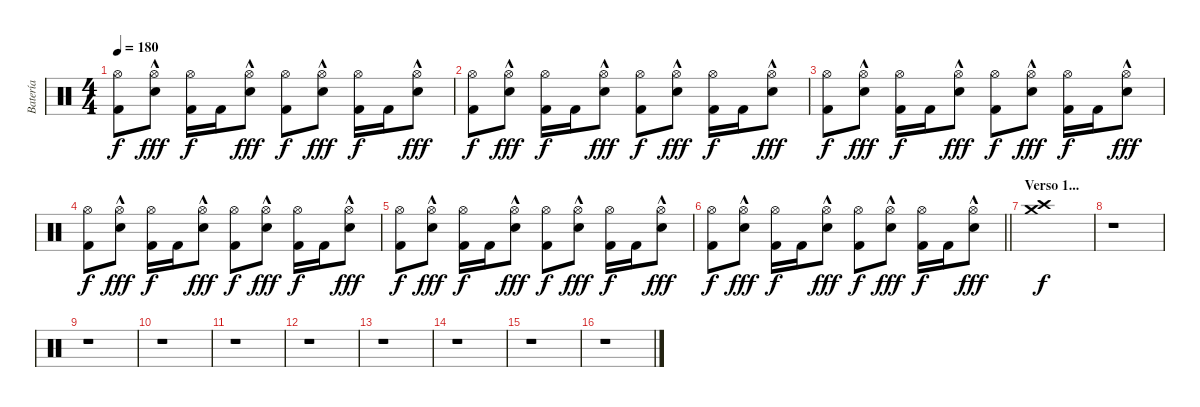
\track ("Batería" "Batería") {instrument percussion}
\staff {score}
\articulation defaults
\ts (4 4)
\tempo 180
\clef neutral
\ks c
("Hi-Hat (open)" "Kick (hit) 2").8{dy f} ("Snare (hit) 2"{hac} "Hi-Hat (open)").8{dy fff} ("Hi-Hat (open)" "Kick (hit) 2").16{dy f} "Kick (hit) 2".16 ("Snare (hit) 2"{hac} "Hi-Hat (open)").8{dy fff} ("Hi-Hat (open)" "Kick (hit) 2").8{dy f} ("Snare (hit) 2"{hac} "Hi-Hat (open)").8{dy fff} ("Hi-Hat (open)" "Kick (hit) 2").16{dy f} "Kick (hit) 2".16 ("Snare (hit) 2"{hac} "Hi-Hat (open)").8{dy fff} |
("Hi-Hat (open)" "Kick (hit) 2").8{dy f} ("Snare (hit) 2"{hac} "Hi-Hat (open)").8{dy fff} ("Hi-Hat (open)" "Kick (hit) 2").16{dy f} "Kick (hit) 2".16 ("Snare (hit) 2"{hac} "Hi-Hat (open)").8{dy fff} ("Hi-Hat (open)" "Kick (hit) 2").8{dy f} ("Snare (hit) 2"{hac} "Hi-Hat (open)").8{dy fff} ("Hi-Hat (open)" "Kick (hit) 2").16{dy f} "Kick (hit) 2".16 ("Snare (hit) 2"{hac} "Hi-Hat (open)").8{dy fff} |
("Hi-Hat (open)" "Kick (hit) 2").8{dy f} ("Snare (hit) 2"{hac} "Hi-Hat (open)").8{dy fff} ("Hi-Hat (open)" "Kick (hit) 2").16{dy f} "Kick (hit) 2".16 ("Snare (hit) 2"{hac} "Hi-Hat (open)").8{dy fff} ("Hi-Hat (open)" "Kick (hit) 2").8{dy f} ("Snare (hit) 2"{hac} "Hi-Hat (open)").8{dy fff} ("Hi-Hat (open)" "Kick (hit) 2").16{dy f} "Kick (hit) 2".16 ("Snare (hit) 2"{hac} "Hi-Hat (open)").8{dy fff} |
("Hi-Hat (open)" "Kick (hit) 2").8{dy f} ("Snare (hit) 2"{hac} "Hi-Hat (open)").8{dy fff} ("Hi-Hat (open)" "Kick (hit) 2").16{dy f} "Kick (hit) 2".16 ("Snare (hit) 2"{hac} "Hi-Hat (open)").8{dy fff} ("Hi-Hat (open)" "Kick (hit) 2").8{dy f} ("Snare (hit) 2"{hac} "Hi-Hat (open)").8{dy fff} ("Hi-Hat (open)" "Kick (hit) 2").16{dy f} "Kick (hit) 2".16 ("Snare (hit) 2"{hac} "Hi-Hat (open)").8{dy fff} |
("Hi-Hat (open)" "Kick (hit) 2").8{dy f} ("Snare (hit) 2"{hac} "Hi-Hat (open)").8{dy fff} ("Hi-Hat (open)" "Kick (hit) 2").16{dy f} "Kick (hit) 2".16 ("Snare (hit) 2"{hac} "Hi-Hat (open)").8{dy fff} ("Hi-Hat (open)" "Kick (hit) 2").8{dy f} ("Snare (hit) 2"{hac} "Hi-Hat (open)").8{dy fff} ("Hi-Hat (open)" "Kick (hit) 2").16{dy f} "Kick (hit) 2".16 ("Snare (hit) 2"{hac} "Hi-Hat (open)").8{dy fff} |
\barLineRight lightlight
("Hi-Hat (open)" "Kick (hit) 2").8{dy f} ("Snare (hit) 2"{hac} "Hi-Hat (open)").8{dy fff} ("Hi-Hat (open)" "Kick (hit) 2").16{dy f} "Kick (hit) 2".16 ("Snare (hit) 2"{hac} "Hi-Hat (open)").8{dy fff} ("Hi-Hat (open)" "Kick (hit) 2").8{dy f} ("Snare (hit) 2"{hac} "Hi-Hat (open)").8{dy fff} ("Hi-Hat (open)" "Kick (hit) 2").16{dy f} "Kick (hit) 2".16 ("Snare (hit) 2"{hac} "Hi-Hat (open)").8{dy fff} |
\section ("" "Verso 1...")
("Crash medium (hit)" "Crash high (hit)").1{dy f} |
r.1 |
r.1 |
r.1 |
r.1 |
r.1 |
r.1 |
r.1 |
r.1 |
r.1
